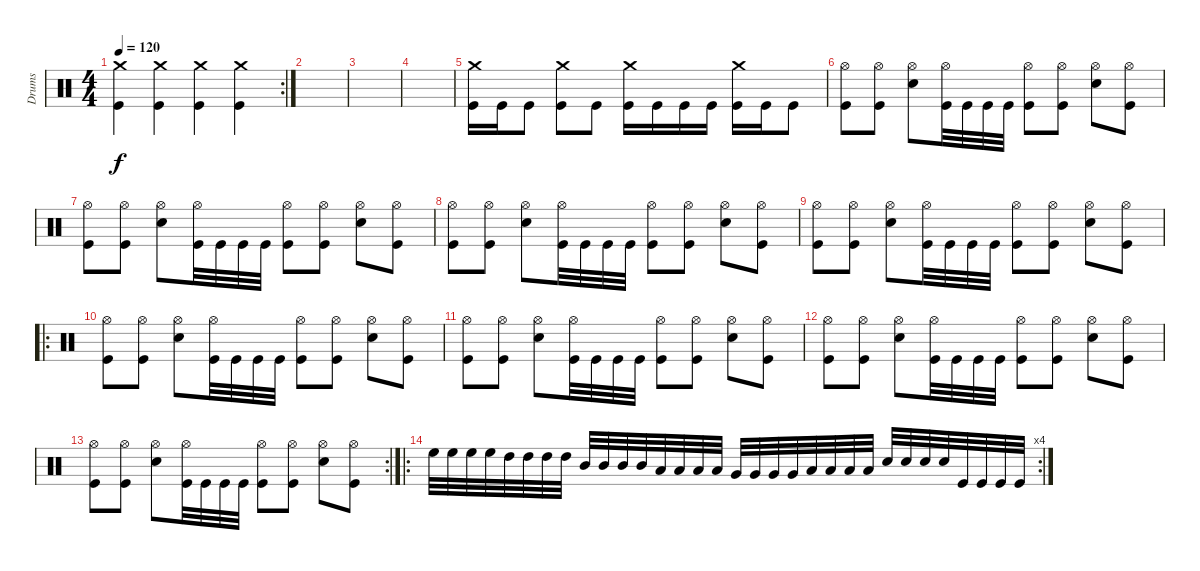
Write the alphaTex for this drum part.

\track ("Drums" "Drums") {instrument percussion}
\staff {score}
\articulation defaults
\rc 2
\ts (4 4)
\tempo 120
\clef neutral
\ks c
("Crash medium (hit)" "Kick (hit)").4{dy f} ("Crash medium (hit)" "Kick (hit)").4 ("Crash medium (hit)" "Kick (hit)").4 ("Crash medium (hit)" "Kick (hit)").4 |
|
|
|
("Crash medium (hit)" "Kick (hit)").16 "Kick (hit)".16 "Kick (hit)".8 ("Crash medium (hit)" "Kick (hit)").8 "Kick (hit)".8 ("Crash medium (hit)" "Kick (hit)").16 "Kick (hit)".16 "Kick (hit)".16 "Kick (hit)".16 ("Crash medium (hit)" "Kick (hit)").16 "Kick (hit)".16 "Kick (hit)".8 |
("Hi-Hat (open)" "Kick (hit)").8 ("Hi-Hat (open)" "Kick (hit)").8 ("Hi-Hat (open)" "Snare (hit) 2").8 ("Hi-Hat (open)" "Kick (hit)").32 "Kick (hit)".32 "Kick (hit)".32 "Kick (hit)".32 ("Hi-Hat (open)" "Kick (hit)").8 ("Hi-Hat (open)" "Kick (hit)").8 ("Hi-Hat (open)" "Snare (hit) 2").8 ("Hi-Hat (open)" "Kick (hit)").8 |
("Hi-Hat (open)" "Kick (hit)").8 ("Hi-Hat (open)" "Kick (hit)").8 ("Hi-Hat (open)" "Snare (hit) 2").8 ("Hi-Hat (open)" "Kick (hit)").32 "Kick (hit)".32 "Kick (hit)".32 "Kick (hit)".32 ("Hi-Hat (open)" "Kick (hit)").8 ("Hi-Hat (open)" "Kick (hit)").8 ("Hi-Hat (open)" "Snare (hit) 2").8 ("Hi-Hat (open)" "Kick (hit)").8 |
("Hi-Hat (open)" "Kick (hit)").8 ("Hi-Hat (open)" "Kick (hit)").8 ("Hi-Hat (open)" "Snare (hit) 2").8 ("Hi-Hat (open)" "Kick (hit)").32 "Kick (hit)".32 "Kick (hit)".32 "Kick (hit)".32 ("Hi-Hat (open)" "Kick (hit)").8 ("Hi-Hat (open)" "Kick (hit)").8 ("Hi-Hat (open)" "Snare (hit) 2").8 ("Hi-Hat (open)" "Kick (hit)").8 |
("Hi-Hat (open)" "Kick (hit)").8 ("Hi-Hat (open)" "Kick (hit)").8 ("Hi-Hat (open)" "Snare (hit) 2").8 ("Hi-Hat (open)" "Kick (hit)").32 "Kick (hit)".32 "Kick (hit)".32 "Kick (hit)".32 ("Hi-Hat (open)" "Kick (hit)").8 ("Hi-Hat (open)" "Kick (hit)").8 ("Hi-Hat (open)" "Snare (hit) 2").8 ("Hi-Hat (open)" "Kick (hit)").8 |
\ro
("Hi-Hat (open)" "Kick (hit)").8 ("Hi-Hat (open)" "Kick (hit)").8 ("Hi-Hat (open)" "Snare (hit) 2").8 ("Hi-Hat (open)" "Kick (hit)").32 "Kick (hit)".32 "Kick (hit)".32 "Kick (hit)".32 ("Hi-Hat (open)" "Kick (hit)").8 ("Hi-Hat (open)" "Kick (hit)").8 ("Hi-Hat (open)" "Snare (hit) 2").8 ("Hi-Hat (open)" "Kick (hit)").8 |
("Hi-Hat (open)" "Kick (hit)").8 ("Hi-Hat (open)" "Kick (hit)").8 ("Hi-Hat (open)" "Snare (hit) 2").8 ("Hi-Hat (open)" "Kick (hit)").32 "Kick (hit)".32 "Kick (hit)".32 "Kick (hit)".32 ("Hi-Hat (open)" "Kick (hit)").8 ("Hi-Hat (open)" "Kick (hit)").8 ("Hi-Hat (open)" "Snare (hit) 2").8 ("Hi-Hat (open)" "Kick (hit)").8 |
("Hi-Hat (open)" "Kick (hit)").8 ("Hi-Hat (open)" "Kick (hit)").8 ("Hi-Hat (open)" "Snare (hit) 2").8 ("Hi-Hat (open)" "Kick (hit)").32 "Kick (hit)".32 "Kick (hit)".32 "Kick (hit)".32 ("Hi-Hat (open)" "Kick (hit)").8 ("Hi-Hat (open)" "Kick (hit)").8 ("Hi-Hat (open)" "Snare (hit) 2").8 ("Hi-Hat (open)" "Kick (hit)").8 |
\rc 2
("Hi-Hat (open)" "Kick (hit)").8 ("Hi-Hat (open)" "Kick (hit)").8 ("Hi-Hat (open)" "Snare (hit) 2").8 ("Hi-Hat (open)" "Kick (hit)").32 "Kick (hit)".32 "Kick (hit)".32 "Kick (hit)".32 ("Hi-Hat (open)" "Kick (hit)").8 ("Hi-Hat (open)" "Kick (hit)").8 ("Hi-Hat (open)" "Snare (hit) 2").8 ("Hi-Hat (open)" "Kick (hit)").8 |
\ro
\rc 4 "High Floor Tom (hit)".32 "High Floor Tom (hit)".32 "High Floor Tom (hit)".32 "High Floor Tom (hit)".32 "High Tom (hit)".32 "High Tom (hit)".32 "High Tom (hit)".32 "High Tom (hit)".32 "Mid Tom (hit)".32 "Mid Tom (hit)".32 "Mid Tom (hit)".32 "Mid Tom (hit)".32 "Low Tom (hit)".32 "Low Tom (hit)".32 "Low Tom (hit)".32 "Low Tom (hit)".32 "Very Low Tom (hit)".32 "Very Low Tom (hit)".32 "Very Low Tom (hit)".32 "Very Low Tom (hit)".32 "Low Floor Tom (hit)".32 "Low Floor Tom (hit)".32 "Low Floor Tom (hit)".32 "Low Floor Tom (hit)".32 "Snare (hit) 2".32 "Snare (hit) 2".32 "Snare (hit) 2".32 "Snare (hit) 2".32 "Kick (hit)".32 "Kick (hit)".32 "Kick (hit)".32 "Kick (hit)".32
